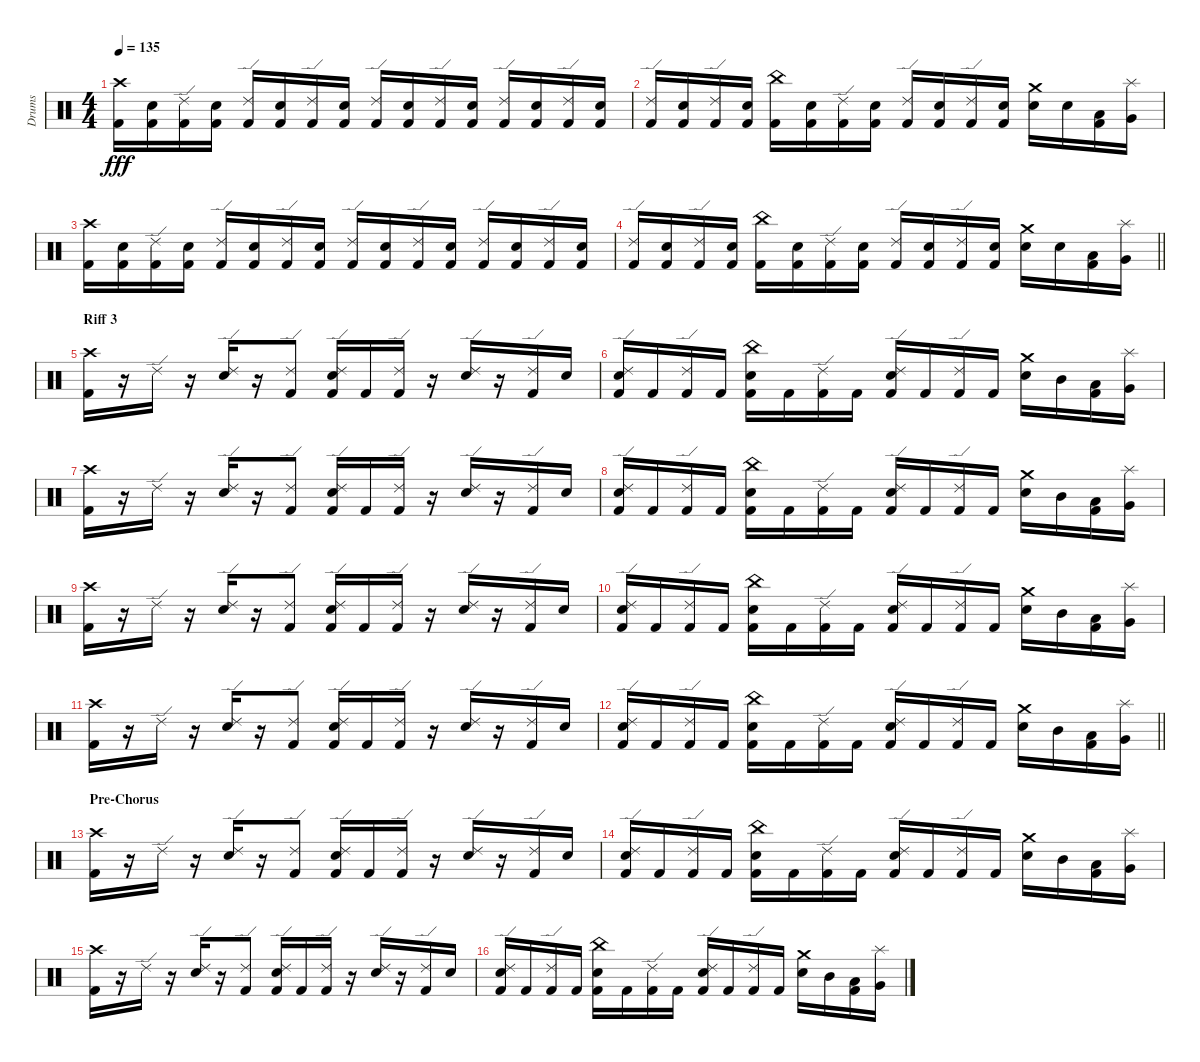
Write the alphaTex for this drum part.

\track ("Drums" "Drums") {instrument percussion}
\staff {score}
\articulation defaults
\ts (4 4)
\tempo 135
\clef neutral
\ks c
("Kick (hit) 2" "Crash high (hit)").16{dy fff} ("Kick (hit) 2" "Snare (hit) 2").16 ("Kick (hit) 2" "Ride (edge) 2").16 ("Kick (hit) 2" "Snare (hit) 2").16 ("Kick (hit) 2" "Ride (edge) 2").16 ("Kick (hit) 2" "Snare (hit) 2").16 ("Kick (hit) 2" "Ride (edge) 2").16 ("Kick (hit) 2" "Snare (hit) 2").16 ("Kick (hit) 2" "Ride (edge) 2").16 ("Kick (hit) 2" "Snare (hit) 2").16 ("Kick (hit) 2" "Ride (edge) 2").16 ("Kick (hit) 2" "Snare (hit) 2").16 ("Kick (hit) 2" "Ride (edge) 2").16 ("Kick (hit) 2" "Snare (hit) 2").16 ("Kick (hit) 2" "Ride (edge) 2").16 ("Kick (hit) 2" "Snare (hit) 2").16 |
("Kick (hit) 2" "Ride (edge) 2").16 ("Kick (hit) 2" "Snare (hit) 2").16 ("Kick (hit) 2" "Ride (edge) 2").16 ("Kick (hit) 2" "Snare (hit) 2").16 ("Kick (hit) 2" "China (hit)").16 ("Kick (hit) 2" "Snare (hit) 2").16 ("Kick (hit) 2" "Ride (edge) 2").16 ("Kick (hit) 2" "Snare (hit) 2").16 ("Kick (hit) 2" "Ride (edge) 2").16 ("Kick (hit) 2" "Snare (hit) 2").16 ("Kick (hit) 2" "Ride (edge) 2").16 ("Kick (hit) 2" "Snare (hit) 2").16 ("Snare (hit) 2" "Crash medium (hit)").16 "Snare (hit) 2".16 ("Kick (hit) 2" "Low Tom (hit)").16 ("Very Low Tom (hit)" "Splash (hit)").16 |
("Kick (hit) 2" "Crash high (hit)").16 ("Kick (hit) 2" "Snare (hit) 2").16 ("Kick (hit) 2" "Ride (edge) 2").16 ("Kick (hit) 2" "Snare (hit) 2").16 ("Kick (hit) 2" "Ride (edge) 2").16 ("Kick (hit) 2" "Snare (hit) 2").16 ("Kick (hit) 2" "Ride (edge) 2").16 ("Kick (hit) 2" "Snare (hit) 2").16 ("Kick (hit) 2" "Ride (edge) 2").16 ("Kick (hit) 2" "Snare (hit) 2").16 ("Kick (hit) 2" "Ride (edge) 2").16 ("Kick (hit) 2" "Snare (hit) 2").16 ("Kick (hit) 2" "Ride (edge) 2").16 ("Kick (hit) 2" "Snare (hit) 2").16 ("Kick (hit) 2" "Ride (edge) 2").16 ("Kick (hit) 2" "Snare (hit) 2").16 |
\barLineRight lightlight
("Kick (hit) 2" "Ride (edge) 2").16 ("Kick (hit) 2" "Snare (hit) 2").16 ("Kick (hit) 2" "Ride (edge) 2").16 ("Kick (hit) 2" "Snare (hit) 2").16 ("Kick (hit) 2" "China (hit)").16 ("Kick (hit) 2" "Snare (hit) 2").16 ("Kick (hit) 2" "Ride (edge) 2").16 ("Kick (hit) 2" "Snare (hit) 2").16 ("Kick (hit) 2" "Ride (edge) 2").16 ("Kick (hit) 2" "Snare (hit) 2").16 ("Kick (hit) 2" "Ride (edge) 2").16 ("Kick (hit) 2" "Snare (hit) 2").16 ("Snare (hit) 2" "Crash medium (hit)").16 "Snare (hit) 2".16 ("Kick (hit) 2" "Low Tom (hit)").16 ("Very Low Tom (hit)" "Splash (hit)").16 |
\section ("" "Riff 3")
("Kick (hit) 2" "Crash high (hit)").16 r.16 "Ride (edge) 2".16 r.16 ("Snare (hit) 2" "Ride (edge) 2").16 r.16 ("Kick (hit) 2" "Ride (edge) 2").8 ("Kick (hit) 2" "Snare (hit) 2" "Ride (edge) 2").16 "Kick (hit) 2".16 ("Kick (hit) 2" "Ride (edge) 2").16 r.16 ("Snare (hit) 2" "Ride (edge) 2").16 r.16 ("Kick (hit) 2" "Ride (edge) 2").16 "Snare (hit) 2".16 |
("Kick (hit) 2" "Snare (hit) 2" "Ride (edge) 2").16 "Kick (hit) 2".16 ("Kick (hit) 2" "Ride (edge) 2").16 "Kick (hit) 2".16 ("Kick (hit) 2" "Snare (hit) 2" "China (hit)").16 "Kick (hit) 2".16 ("Kick (hit) 2" "Ride (edge) 2").16 "Kick (hit) 2".16 ("Kick (hit) 2" "Snare (hit) 2" "Ride (edge) 2").16 "Kick (hit) 2".16 ("Kick (hit) 2" "Ride (edge) 2").16 "Kick (hit) 2".16 ("Snare (hit) 2" "Crash medium (hit)").16 "Mid Tom (hit)".16 ("Kick (hit) 2" "Low Tom (hit)").16 ("Very Low Tom (hit)" "Splash (hit)").16 |
("Kick (hit) 2" "Crash high (hit)").16 r.16 "Ride (edge) 2".16 r.16 ("Snare (hit) 2" "Ride (edge) 2").16 r.16 ("Kick (hit) 2" "Ride (edge) 2").8 ("Kick (hit) 2" "Snare (hit) 2" "Ride (edge) 2").16 "Kick (hit) 2".16 ("Kick (hit) 2" "Ride (edge) 2").16 r.16 ("Snare (hit) 2" "Ride (edge) 2").16 r.16 ("Kick (hit) 2" "Ride (edge) 2").16 "Snare (hit) 2".16 |
("Kick (hit) 2" "Snare (hit) 2" "Ride (edge) 2").16 "Kick (hit) 2".16 ("Kick (hit) 2" "Ride (edge) 2").16 "Kick (hit) 2".16 ("Kick (hit) 2" "Snare (hit) 2" "China (hit)").16 "Kick (hit) 2".16 ("Kick (hit) 2" "Ride (edge) 2").16 "Kick (hit) 2".16 ("Kick (hit) 2" "Snare (hit) 2" "Ride (edge) 2").16 "Kick (hit) 2".16 ("Kick (hit) 2" "Ride (edge) 2").16 "Kick (hit) 2".16 ("Snare (hit) 2" "Crash medium (hit)").16 "Mid Tom (hit)".16 ("Kick (hit) 2" "Low Tom (hit)").16 ("Very Low Tom (hit)" "Splash (hit)").16 |
("Kick (hit) 2" "Crash high (hit)").16 r.16 "Ride (edge) 2".16 r.16 ("Snare (hit) 2" "Ride (edge) 2").16 r.16 ("Kick (hit) 2" "Ride (edge) 2").8 ("Kick (hit) 2" "Snare (hit) 2" "Ride (edge) 2").16 "Kick (hit) 2".16 ("Kick (hit) 2" "Ride (edge) 2").16 r.16 ("Snare (hit) 2" "Ride (edge) 2").16 r.16 ("Kick (hit) 2" "Ride (edge) 2").16 "Snare (hit) 2".16 |
("Kick (hit) 2" "Snare (hit) 2" "Ride (edge) 2").16 "Kick (hit) 2".16 ("Kick (hit) 2" "Ride (edge) 2").16 "Kick (hit) 2".16 ("Kick (hit) 2" "Snare (hit) 2" "China (hit)").16 "Kick (hit) 2".16 ("Kick (hit) 2" "Ride (edge) 2").16 "Kick (hit) 2".16 ("Kick (hit) 2" "Snare (hit) 2" "Ride (edge) 2").16 "Kick (hit) 2".16 ("Kick (hit) 2" "Ride (edge) 2").16 "Kick (hit) 2".16 ("Snare (hit) 2" "Crash medium (hit)").16 "Mid Tom (hit)".16 ("Kick (hit) 2" "Low Tom (hit)").16 ("Very Low Tom (hit)" "Splash (hit)").16 |
("Kick (hit) 2" "Crash high (hit)").16 r.16 "Ride (edge) 2".16 r.16 ("Snare (hit) 2" "Ride (edge) 2").16 r.16 ("Kick (hit) 2" "Ride (edge) 2").8 ("Kick (hit) 2" "Snare (hit) 2" "Ride (edge) 2").16 "Kick (hit) 2".16 ("Kick (hit) 2" "Ride (edge) 2").16 r.16 ("Snare (hit) 2" "Ride (edge) 2").16 r.16 ("Kick (hit) 2" "Ride (edge) 2").16 "Snare (hit) 2".16 |
\barLineRight lightlight
("Kick (hit) 2" "Snare (hit) 2" "Ride (edge) 2").16 "Kick (hit) 2".16 ("Kick (hit) 2" "Ride (edge) 2").16 "Kick (hit) 2".16 ("Kick (hit) 2" "Snare (hit) 2" "China (hit)").16 "Kick (hit) 2".16 ("Kick (hit) 2" "Ride (edge) 2").16 "Kick (hit) 2".16 ("Kick (hit) 2" "Snare (hit) 2" "Ride (edge) 2").16 "Kick (hit) 2".16 ("Kick (hit) 2" "Ride (edge) 2").16 "Kick (hit) 2".16 ("Snare (hit) 2" "Crash medium (hit)").16 "Mid Tom (hit)".16 ("Kick (hit) 2" "Low Tom (hit)").16 ("Very Low Tom (hit)" "Splash (hit)").16 |
\section ("" "Pre-Chorus")
("Kick (hit) 2" "Crash high (hit)").16 r.16 "Ride (edge) 2".16 r.16 ("Snare (hit) 2" "Ride (edge) 2").16 r.16 ("Kick (hit) 2" "Ride (edge) 2").8 ("Kick (hit) 2" "Snare (hit) 2" "Ride (edge) 2").16 "Kick (hit) 2".16 ("Kick (hit) 2" "Ride (edge) 2").16 r.16 ("Snare (hit) 2" "Ride (edge) 2").16 r.16 ("Kick (hit) 2" "Ride (edge) 2").16 "Snare (hit) 2".16 |
("Kick (hit) 2" "Snare (hit) 2" "Ride (edge) 2").16 "Kick (hit) 2".16 ("Kick (hit) 2" "Ride (edge) 2").16 "Kick (hit) 2".16 ("Kick (hit) 2" "Snare (hit) 2" "China (hit)").16 "Kick (hit) 2".16 ("Kick (hit) 2" "Ride (edge) 2").16 "Kick (hit) 2".16 ("Kick (hit) 2" "Snare (hit) 2" "Ride (edge) 2").16 "Kick (hit) 2".16 ("Kick (hit) 2" "Ride (edge) 2").16 "Kick (hit) 2".16 ("Snare (hit) 2" "Crash medium (hit)").16 "Mid Tom (hit)".16 ("Kick (hit) 2" "Low Tom (hit)").16 ("Very Low Tom (hit)" "Splash (hit)").16 |
("Kick (hit) 2" "Crash high (hit)").16 r.16 "Ride (edge) 2".16 r.16 ("Snare (hit) 2" "Ride (edge) 2").16 r.16 ("Kick (hit) 2" "Ride (edge) 2").8 ("Kick (hit) 2" "Snare (hit) 2" "Ride (edge) 2").16 "Kick (hit) 2".16 ("Kick (hit) 2" "Ride (edge) 2").16 r.16 ("Snare (hit) 2" "Ride (edge) 2").16 r.16 ("Kick (hit) 2" "Ride (edge) 2").16 "Snare (hit) 2".16 |
("Kick (hit) 2" "Snare (hit) 2" "Ride (edge) 2").16 "Kick (hit) 2".16 ("Kick (hit) 2" "Ride (edge) 2").16 "Kick (hit) 2".16 ("Kick (hit) 2" "Snare (hit) 2" "China (hit)").16 "Kick (hit) 2".16 ("Kick (hit) 2" "Ride (edge) 2").16 "Kick (hit) 2".16 ("Kick (hit) 2" "Snare (hit) 2" "Ride (edge) 2").16 "Kick (hit) 2".16 ("Kick (hit) 2" "Ride (edge) 2").16 "Kick (hit) 2".16 ("Snare (hit) 2" "Crash medium (hit)").16 "Mid Tom (hit)".16 ("Kick (hit) 2" "Low Tom (hit)").16 ("Very Low Tom (hit)" "Splash (hit)").16
